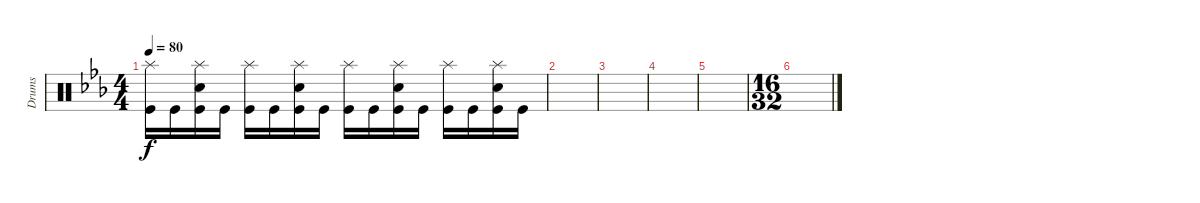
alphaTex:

\track ("Drums" "Drums") {instrument percussion}
\staff {score}
\articulation defaults
\ts (4 4)
\tempo 80
\clef neutral
\ks eb
("Splash (hit)" "Kick (hit)").16{dy f} "Kick (hit)".16 ("Splash (hit)" "Electric Snare (hit)" "Kick (hit)").16 "Kick (hit)".16 ("Splash (hit)" "Kick (hit)").16 "Kick (hit)".16 ("Splash (hit)" "Electric Snare (hit)" "Kick (hit)").16 "Kick (hit)".16 ("Splash (hit)" "Kick (hit)").16 "Kick (hit)".16 ("Splash (hit)" "Electric Snare (hit)" "Kick (hit)").16 "Kick (hit)".16 ("Splash (hit)" "Kick (hit)").16 "Kick (hit)".16 ("Splash (hit)" "Electric Snare (hit)" "Kick (hit)").16 "Kick (hit)".16 |
|
|
|
|
\ts (16 32)
